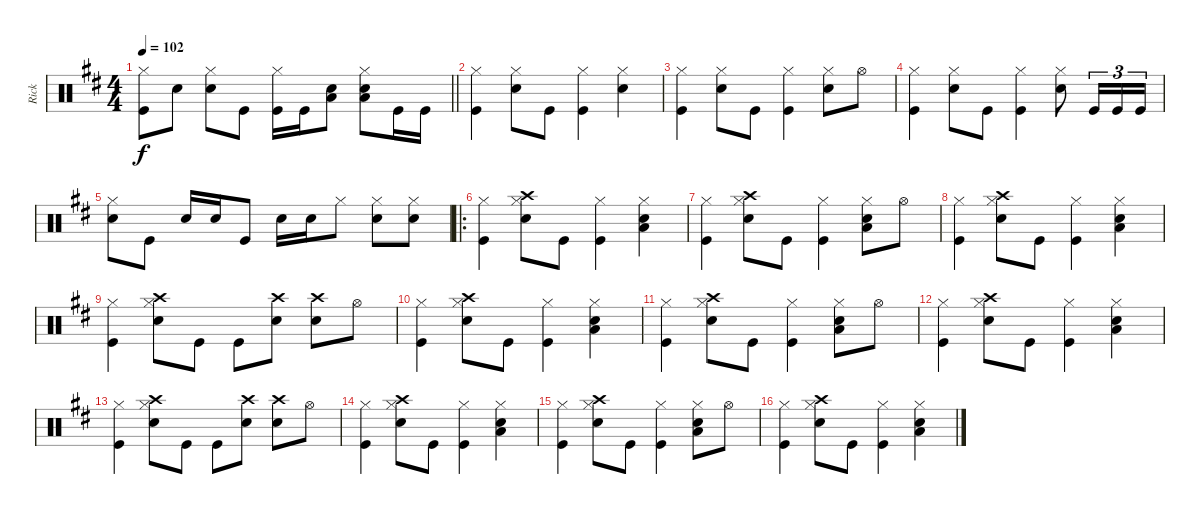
\track ("Rick" "Rick") {instrument percussion}
\staff {score}
\articulation defaults
\ts (4 4)
\tempo 102
\clef neutral
\barLineRight lightlight
\ks d
("Hi-Hat (closed)" "Kick (hit)").8{dy f} "Snare (hit) 2".8 ("Hi-Hat (closed)" "Snare (hit) 2").8 "Kick (hit)".8 ("Hi-Hat (closed)" "Kick (hit)").16 "Kick (hit)".16 ("Snare (hit) 2" "Low Tom (hit)").8 ("Hi-Hat (closed)" "Snare (hit) 2" "Low Tom (hit)").8 "Kick (hit)".16 "Kick (hit)".16 |
("Hi-Hat (closed)" "Kick (hit)").4 ("Hi-Hat (closed)" "Snare (hit) 2").8 "Kick (hit)".8 ("Hi-Hat (closed)" "Kick (hit)").4 ("Hi-Hat (closed)" "Snare (hit) 2").4 |
("Hi-Hat (closed)" "Kick (hit)").4 ("Hi-Hat (closed)" "Snare (hit) 2").8 "Kick (hit)".8 ("Hi-Hat (closed)" "Kick (hit)").4 ("Hi-Hat (closed)" "Snare (hit) 2").8 "Hi-Hat (open)".8 |
("Hi-Hat (closed)" "Kick (hit)").4 ("Hi-Hat (closed)" "Snare (hit) 2").8 "Kick (hit)".8 ("Hi-Hat (closed)" "Kick (hit)").4 ("Hi-Hat (closed)" "Snare (hit) 2").8 "Kick (hit)".16{tu (3 2)} "Kick (hit)".16{tu (3 2)} "Kick (hit)".16{tu (3 2)} |
("Hi-Hat (closed)" "Snare (hit) 2").8 "Kick (hit)".8 "Snare (hit) 2".16 "Snare (hit) 2".16 "Kick (hit)".8 "Snare (hit) 2".16 "Snare (hit) 2".16 "Hi-Hat (closed)".8 ("Hi-Hat (closed)" "Snare (hit) 2").8 ("Hi-Hat (closed)" "Snare (hit) 2").8 |
\ro
("Hi-Hat (closed)" "Kick (hit)").4 ("Crash high (hit)" "Hi-Hat (closed)" "Snare (hit) 2").8 "Kick (hit)".8 ("Hi-Hat (closed)" "Kick (hit)").4 ("Hi-Hat (closed)" "Snare (hit) 2" "Low Tom (hit)").4 |
("Hi-Hat (closed)" "Kick (hit)").4 ("Crash high (hit)" "Snare (hit) 2" "Hi-Hat (closed)").8 "Kick (hit)".8 ("Hi-Hat (closed)" "Kick (hit)").4 ("Hi-Hat (closed)" "Snare (hit) 2" "Low Tom (hit)").8 "Hi-Hat (open)".8 |
("Hi-Hat (closed)" "Kick (hit)").4 ("Crash high (hit)" "Hi-Hat (closed)" "Snare (hit) 2").8 "Kick (hit)".8 ("Hi-Hat (closed)" "Kick (hit)").4 ("Hi-Hat (closed)" "Snare (hit) 2" "Low Tom (hit)").4 |
("Hi-Hat (closed)" "Kick (hit)").4 ("Crash high (hit)" "Hi-Hat (closed)" "Snare (hit) 2").8 "Kick (hit)".8 "Kick (hit)".8 ("Crash high (hit)" "Snare (hit) 2").8 ("Crash high (hit)" "Snare (hit) 2").8 "Hi-Hat (open)".8 |
("Hi-Hat (closed)" "Kick (hit)").4 ("Crash high (hit)" "Hi-Hat (closed)" "Snare (hit) 2").8 "Kick (hit)".8 ("Hi-Hat (closed)" "Kick (hit)").4 ("Hi-Hat (closed)" "Snare (hit) 2" "Low Tom (hit)").4 |
("Hi-Hat (closed)" "Kick (hit)").4 ("Crash high (hit)" "Snare (hit) 2" "Hi-Hat (closed)").8 "Kick (hit)".8 ("Hi-Hat (closed)" "Kick (hit)").4 ("Hi-Hat (closed)" "Snare (hit) 2" "Low Tom (hit)").8 "Hi-Hat (open)".8 |
("Hi-Hat (closed)" "Kick (hit)").4 ("Crash high (hit)" "Hi-Hat (closed)" "Snare (hit) 2").8 "Kick (hit)".8 ("Hi-Hat (closed)" "Kick (hit)").4 ("Hi-Hat (closed)" "Snare (hit) 2" "Low Tom (hit)").4 |
("Hi-Hat (closed)" "Kick (hit)").4 ("Crash high (hit)" "Hi-Hat (closed)" "Snare (hit) 2").8 "Kick (hit)".8 "Kick (hit)".8 ("Crash high (hit)" "Snare (hit) 2").8 ("Crash high (hit)" "Snare (hit) 2").8 "Hi-Hat (open)".8 |
("Hi-Hat (closed)" "Kick (hit)").4 ("Crash high (hit)" "Hi-Hat (closed)" "Snare (hit) 2").8 "Kick (hit)".8 ("Hi-Hat (closed)" "Kick (hit)").4 ("Hi-Hat (closed)" "Snare (hit) 2" "Low Tom (hit)").4 |
("Hi-Hat (closed)" "Kick (hit)").4 ("Crash high (hit)" "Snare (hit) 2" "Hi-Hat (closed)").8 "Kick (hit)".8 ("Hi-Hat (closed)" "Kick (hit)").4 ("Hi-Hat (closed)" "Snare (hit) 2" "Low Tom (hit)").8 "Hi-Hat (open)".8 |
("Hi-Hat (closed)" "Kick (hit)").4 ("Crash high (hit)" "Hi-Hat (closed)" "Snare (hit) 2").8 "Kick (hit)".8 ("Hi-Hat (closed)" "Kick (hit)").4 ("Hi-Hat (closed)" "Snare (hit) 2" "Low Tom (hit)").4
